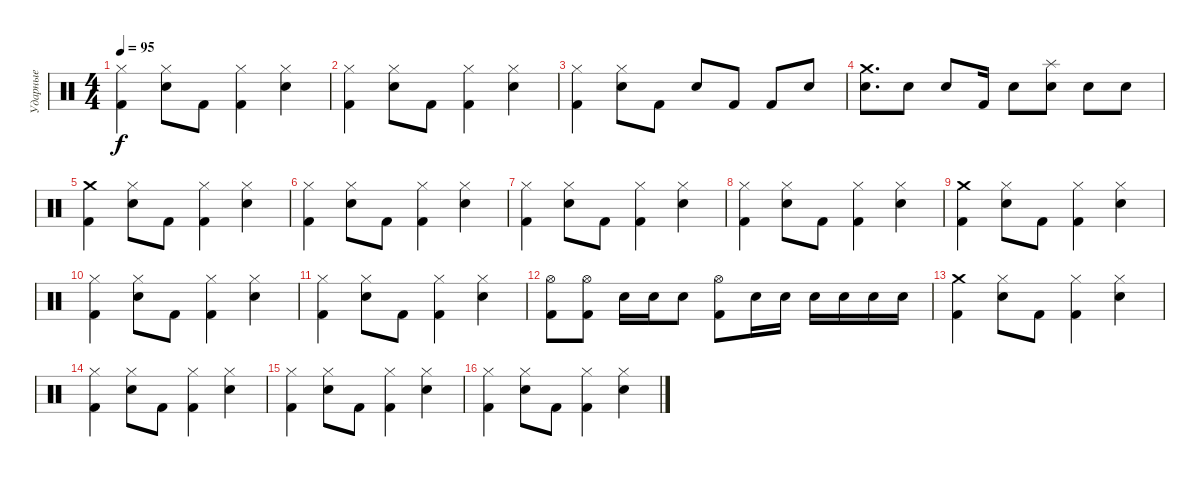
\track ("Ударные" "Ударные") {instrument percussion}
\staff {score}
\articulation defaults
\ts (4 4)
\tempo 95
\clef neutral
\ks c
("Hi-Hat (closed)" "Kick (hit) 2").4{dy f} ("Hi-Hat (closed)" "Snare (hit) 2").8 "Kick (hit) 2".8 ("Hi-Hat (closed)" "Kick (hit) 2").4 ("Hi-Hat (closed)" "Snare (hit) 2").4 |
("Hi-Hat (closed)" "Kick (hit) 2").4 ("Hi-Hat (closed)" "Snare (hit) 2").8 "Kick (hit) 2".8 ("Hi-Hat (closed)" "Kick (hit) 2").4 ("Hi-Hat (closed)" "Snare (hit) 2").4 |
("Hi-Hat (closed)" "Kick (hit) 2").4 ("Hi-Hat (closed)" "Snare (hit) 2").8 "Kick (hit) 2".8 "Snare (hit) 2".8 "Kick (hit) 2".8 "Kick (hit) 2".8 "Snare (hit) 2".8 |
("Crash medium (hit)" "Snare (hit) 2").8{d} "Snare (hit) 2".8 "Snare (hit) 2".8 "Kick (hit) 2".16 "Snare (hit) 2".8 ("Splash (hit)" "Snare (hit) 2").8 "Snare (hit) 2".8 "Snare (hit) 2".8 |
("Crash medium (hit)" "Kick (hit) 2").4 ("Hi-Hat (closed)" "Snare (hit) 2").8 "Kick (hit) 2".8 ("Hi-Hat (closed)" "Kick (hit) 2").4 ("Hi-Hat (closed)" "Snare (hit) 2").4 |
("Hi-Hat (closed)" "Kick (hit) 2").4 ("Hi-Hat (closed)" "Snare (hit) 2").8 "Kick (hit) 2".8 ("Hi-Hat (closed)" "Kick (hit) 2").4 ("Hi-Hat (closed)" "Snare (hit) 2").4 |
("Hi-Hat (closed)" "Kick (hit) 2").4 ("Hi-Hat (closed)" "Snare (hit) 2").8 "Kick (hit) 2".8 ("Hi-Hat (closed)" "Kick (hit) 2").4 ("Hi-Hat (closed)" "Snare (hit) 2").4 |
("Hi-Hat (closed)" "Kick (hit) 2").4 ("Hi-Hat (closed)" "Snare (hit) 2").8 "Kick (hit) 2".8 ("Hi-Hat (closed)" "Kick (hit) 2").4 ("Hi-Hat (closed)" "Snare (hit) 2").4 |
("Crash medium (hit)" "Kick (hit) 2").4 ("Hi-Hat (closed)" "Snare (hit) 2").8 "Kick (hit) 2".8 ("Hi-Hat (closed)" "Kick (hit) 2").4 ("Hi-Hat (closed)" "Snare (hit) 2").4 |
("Hi-Hat (closed)" "Kick (hit) 2").4 ("Hi-Hat (closed)" "Snare (hit) 2").8 "Kick (hit) 2".8 ("Hi-Hat (closed)" "Kick (hit) 2").4 ("Hi-Hat (closed)" "Snare (hit) 2").4 |
("Hi-Hat (closed)" "Kick (hit) 2").4 ("Hi-Hat (closed)" "Snare (hit) 2").8 "Kick (hit) 2".8 ("Hi-Hat (closed)" "Kick (hit) 2").4 ("Hi-Hat (closed)" "Snare (hit) 2").4 |
("Hi-Hat (open)" "Kick (hit) 2").8 ("Hi-Hat (open)" "Kick (hit) 2").8 "Snare (hit) 2".16 "Snare (hit) 2".16 "Snare (hit) 2".8 ("Hi-Hat (open)" "Kick (hit) 2").8 "Snare (hit) 2".16 "Snare (hit) 2".16 "Snare (hit) 2".16 "Snare (hit) 2".16 "Snare (hit) 2".16 "Snare (hit) 2".16 |
("Crash medium (hit)" "Kick (hit) 2").4 ("Hi-Hat (closed)" "Snare (hit) 2").8 "Kick (hit) 2".8 ("Hi-Hat (closed)" "Kick (hit) 2").4 ("Hi-Hat (closed)" "Snare (hit) 2").4 |
("Hi-Hat (closed)" "Kick (hit) 2").4 ("Hi-Hat (closed)" "Snare (hit) 2").8 "Kick (hit) 2".8 ("Hi-Hat (closed)" "Kick (hit) 2").4 ("Hi-Hat (closed)" "Snare (hit) 2").4 |
("Hi-Hat (closed)" "Kick (hit) 2").4 ("Hi-Hat (closed)" "Snare (hit) 2").8 "Kick (hit) 2".8 ("Hi-Hat (closed)" "Kick (hit) 2").4 ("Hi-Hat (closed)" "Snare (hit) 2").4 |
("Hi-Hat (closed)" "Kick (hit) 2").4 ("Hi-Hat (closed)" "Snare (hit) 2").8 "Kick (hit) 2".8 ("Hi-Hat (closed)" "Kick (hit) 2").4 ("Hi-Hat (closed)" "Snare (hit) 2").4
